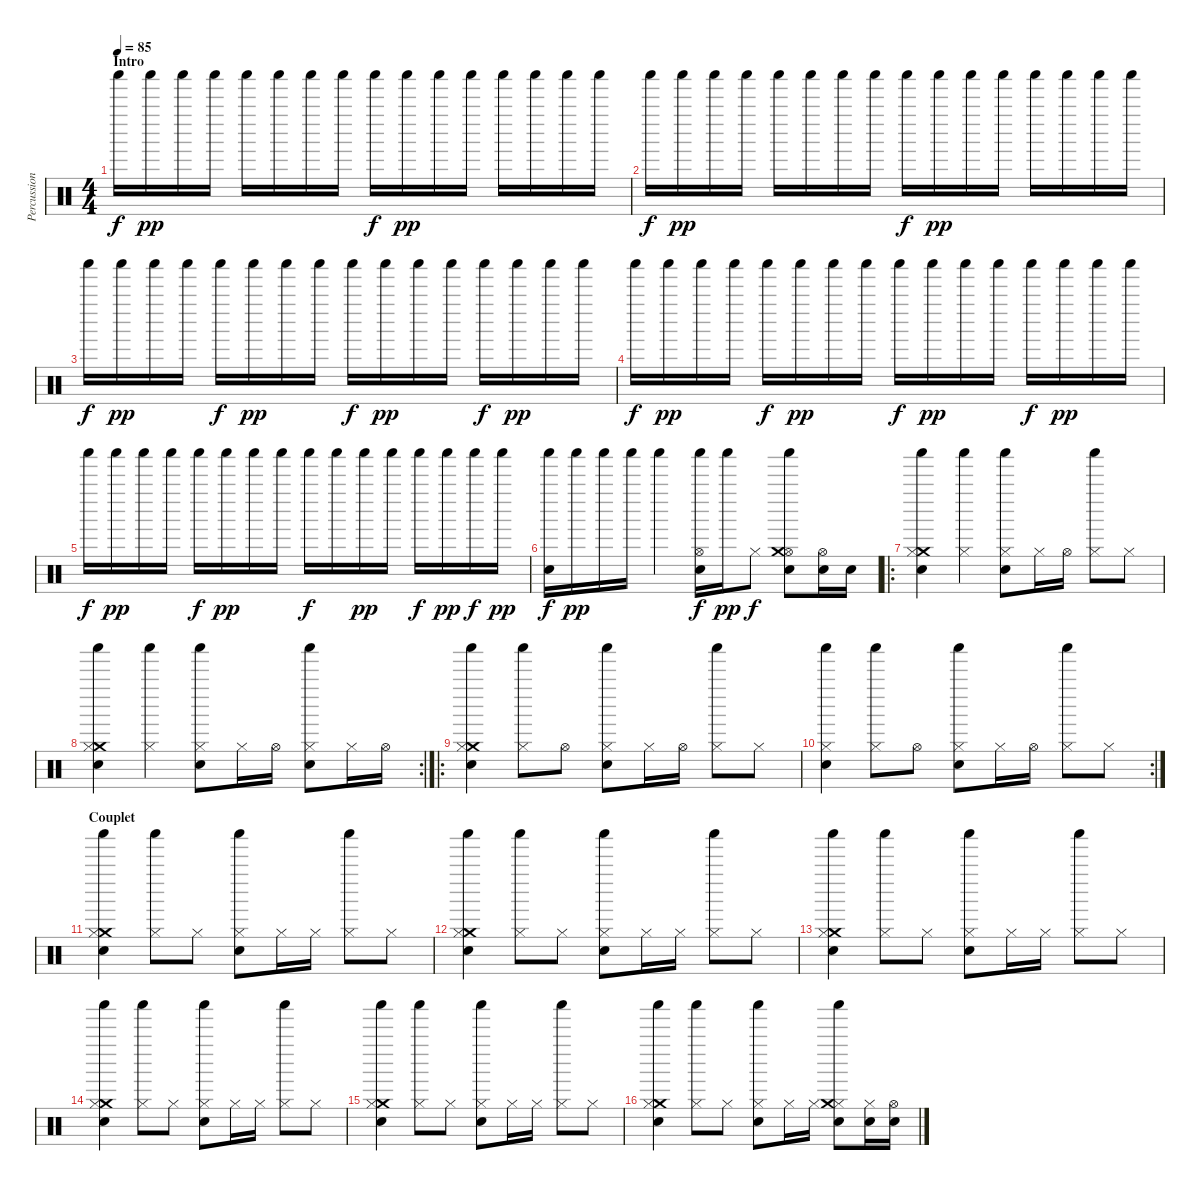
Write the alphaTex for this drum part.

\track ("Percussions" "Percussion") {instrument percussion}
\staff {score}
\articulation defaults
\ts (4 4)
\section ("" "Intro")
\tempo 85
\clef neutral
\ks c "Shaker (hit)".16{dy f} "Shaker (hit)".16{dy pp} "Shaker (hit)".16 "Shaker (hit)".16 "Shaker (hit)".16 "Shaker (hit)".16 "Shaker (hit)".16 "Shaker (hit)".16 "Shaker (hit)".16{dy f} "Shaker (hit)".16{dy pp} "Shaker (hit)".16 "Shaker (hit)".16 "Shaker (hit)".16 "Shaker (hit)".16 "Shaker (hit)".16 "Shaker (hit)".16
|
"Shaker (hit)".16{dy f} "Shaker (hit)".16{dy pp} "Shaker (hit)".16 "Shaker (hit)".16 "Shaker (hit)".16 "Shaker (hit)".16 "Shaker (hit)".16 "Shaker (hit)".16 "Shaker (hit)".16{dy f} "Shaker (hit)".16{dy pp} "Shaker (hit)".16 "Shaker (hit)".16 "Shaker (hit)".16 "Shaker (hit)".16 "Shaker (hit)".16 "Shaker (hit)".16 |
"Shaker (hit)".16{dy f} "Shaker (hit)".16{dy pp} "Shaker (hit)".16 "Shaker (hit)".16 "Shaker (hit)".16{dy f} "Shaker (hit)".16{dy pp} "Shaker (hit)".16 "Shaker (hit)".16 "Shaker (hit)".16{dy f} "Shaker (hit)".16{dy pp} "Shaker (hit)".16 "Shaker (hit)".16 "Shaker (hit)".16{dy f} "Shaker (hit)".16{dy pp} "Shaker (hit)".16 "Shaker (hit)".16 |
"Shaker (hit)".16{dy f} "Shaker (hit)".16{dy pp} "Shaker (hit)".16 "Shaker (hit)".16 "Shaker (hit)".16{dy f} "Shaker (hit)".16{dy pp} "Shaker (hit)".16 "Shaker (hit)".16 "Shaker (hit)".16{dy f} "Shaker (hit)".16{dy pp} "Shaker (hit)".16 "Shaker (hit)".16 "Shaker (hit)".16{dy f} "Shaker (hit)".16{dy pp} "Shaker (hit)".16 "Shaker (hit)".16 |
"Shaker (hit)".16{dy f} "Shaker (hit)".16{dy pp} "Shaker (hit)".16 "Shaker (hit)".16 "Shaker (hit)".16{dy f} "Shaker (hit)".16{dy pp} "Shaker (hit)".16 "Shaker (hit)".16 "Shaker (hit)".16{dy f} "Shaker (hit)".16 "Shaker (hit)".16{dy pp} "Shaker (hit)".16 "Shaker (hit)".16{dy f} "Shaker (hit)".16{dy pp} "Shaker (hit)".16{dy f} "Shaker (hit)".16{dy pp} |
("Shaker (hit)" "Electric Snare (hit)").16{dy f} "Shaker (hit)".16{dy pp} "Shaker (hit)".16 "Shaker (hit)".16 "Shaker (hit)".4 ("Shaker (hit)" "Hi-Hat (open)" "Electric Snare (hit)").16{dy f} "Shaker (hit)".16{dy pp} "Hi-Hat (closed)".8{dy f} ("Shaker (hit)" "Hi-Hat (open)" "Crash medium (hit)" "Electric Snare (hit)").8 ("Hi-Hat (open)" "Electric Snare (hit)").16 "Electric Snare (hit)".16 |
\ro
("Shaker (hit)" "Electric Snare (hit)" "Crash medium (hit)" "Hi-Hat (closed)").4 ("Shaker (hit)" "Hi-Hat (closed)").4 ("Shaker (hit)" "Electric Snare (hit)" "Hi-Hat (closed)").8 "Hi-Hat (closed)".16 "Hi-Hat (open)".16 ("Shaker (hit)" "Hi-Hat (closed)").8 "Hi-Hat (closed)".8 |
\rc 2
("Shaker (hit)" "Electric Snare (hit)" "Crash medium (hit)" "Hi-Hat (closed)").4 ("Shaker (hit)" "Hi-Hat (closed)").4 ("Shaker (hit)" "Electric Snare (hit)" "Hi-Hat (closed)").8 "Hi-Hat (closed)".16 "Hi-Hat (open)".16 ("Shaker (hit)" "Hi-Hat (closed)" "Electric Snare (hit)").8 "Hi-Hat (closed)".16 "Hi-Hat (open)".16 |
\ro
("Shaker (hit)" "Electric Snare (hit)" "Crash medium (hit)" "Hi-Hat (closed)").4 ("Shaker (hit)" "Hi-Hat (closed)").8 "Hi-Hat (open)".8 ("Shaker (hit)" "Electric Snare (hit)" "Hi-Hat (closed)").8 "Hi-Hat (closed)".16 "Hi-Hat (open)".16 ("Shaker (hit)" "Hi-Hat (closed)").8 "Hi-Hat (closed)".8 |
\rc 2
("Shaker (hit)" "Electric Snare (hit)" "Hi-Hat (closed)").4 ("Shaker (hit)" "Hi-Hat (closed)").8 "Hi-Hat (open)".8 ("Shaker (hit)" "Electric Snare (hit)" "Hi-Hat (closed)").8 "Hi-Hat (closed)".16 "Hi-Hat (open)".16 ("Shaker (hit)" "Hi-Hat (closed)").8 "Hi-Hat (closed)".8 |
\section ("" "Couplet")
("Shaker (hit)" "Electric Snare (hit)" "Crash medium (hit)" "Hi-Hat (closed)").4 ("Shaker (hit)" "Hi-Hat (closed)").8 "Hi-Hat (closed)".8 ("Shaker (hit)" "Electric Snare (hit)" "Hi-Hat (closed)").8 "Hi-Hat (closed)".16 "Hi-Hat (closed)".16 ("Shaker (hit)" "Hi-Hat (closed)").8 "Hi-Hat (closed)".8 |
("Shaker (hit)" "Electric Snare (hit)" "Crash medium (hit)" "Hi-Hat (closed)").4 ("Shaker (hit)" "Hi-Hat (closed)").8 "Hi-Hat (closed)".8 ("Shaker (hit)" "Electric Snare (hit)" "Hi-Hat (closed)").8 "Hi-Hat (closed)".16 "Hi-Hat (closed)".16 ("Shaker (hit)" "Hi-Hat (closed)").8 "Hi-Hat (closed)".8 |
("Shaker (hit)" "Electric Snare (hit)" "Crash medium (hit)" "Hi-Hat (closed)").4 ("Shaker (hit)" "Hi-Hat (closed)").8 "Hi-Hat (closed)".8 ("Shaker (hit)" "Electric Snare (hit)" "Hi-Hat (closed)").8 "Hi-Hat (closed)".16 "Hi-Hat (closed)".16 ("Shaker (hit)" "Hi-Hat (closed)").8 "Hi-Hat (closed)".8 |
("Shaker (hit)" "Electric Snare (hit)" "Crash medium (hit)" "Hi-Hat (closed)").4 ("Shaker (hit)" "Hi-Hat (closed)").8 "Hi-Hat (closed)".8 ("Shaker (hit)" "Electric Snare (hit)" "Hi-Hat (closed)").8 "Hi-Hat (closed)".16 "Hi-Hat (closed)".16 ("Shaker (hit)" "Hi-Hat (closed)").8 "Hi-Hat (closed)".8 |
("Shaker (hit)" "Electric Snare (hit)" "Crash medium (hit)" "Hi-Hat (closed)").4 ("Shaker (hit)" "Hi-Hat (closed)").8 "Hi-Hat (closed)".8 ("Shaker (hit)" "Electric Snare (hit)" "Hi-Hat (closed)").8 "Hi-Hat (closed)".16 "Hi-Hat (closed)".16 ("Shaker (hit)" "Hi-Hat (closed)").8 "Hi-Hat (closed)".8 |
("Shaker (hit)" "Electric Snare (hit)" "Crash medium (hit)" "Hi-Hat (closed)").4 ("Shaker (hit)" "Hi-Hat (closed)").8 "Hi-Hat (closed)".8 ("Shaker (hit)" "Electric Snare (hit)" "Hi-Hat (closed)").8 "Hi-Hat (closed)".16 "Hi-Hat (closed)".16 ("Shaker (hit)" "Hi-Hat (closed)" "Electric Snare (hit)" "Crash medium (hit)").8 ("Hi-Hat (closed)" "Electric Snare (hit)").16 ("Hi-Hat (open)" "Electric Snare (hit)").16
